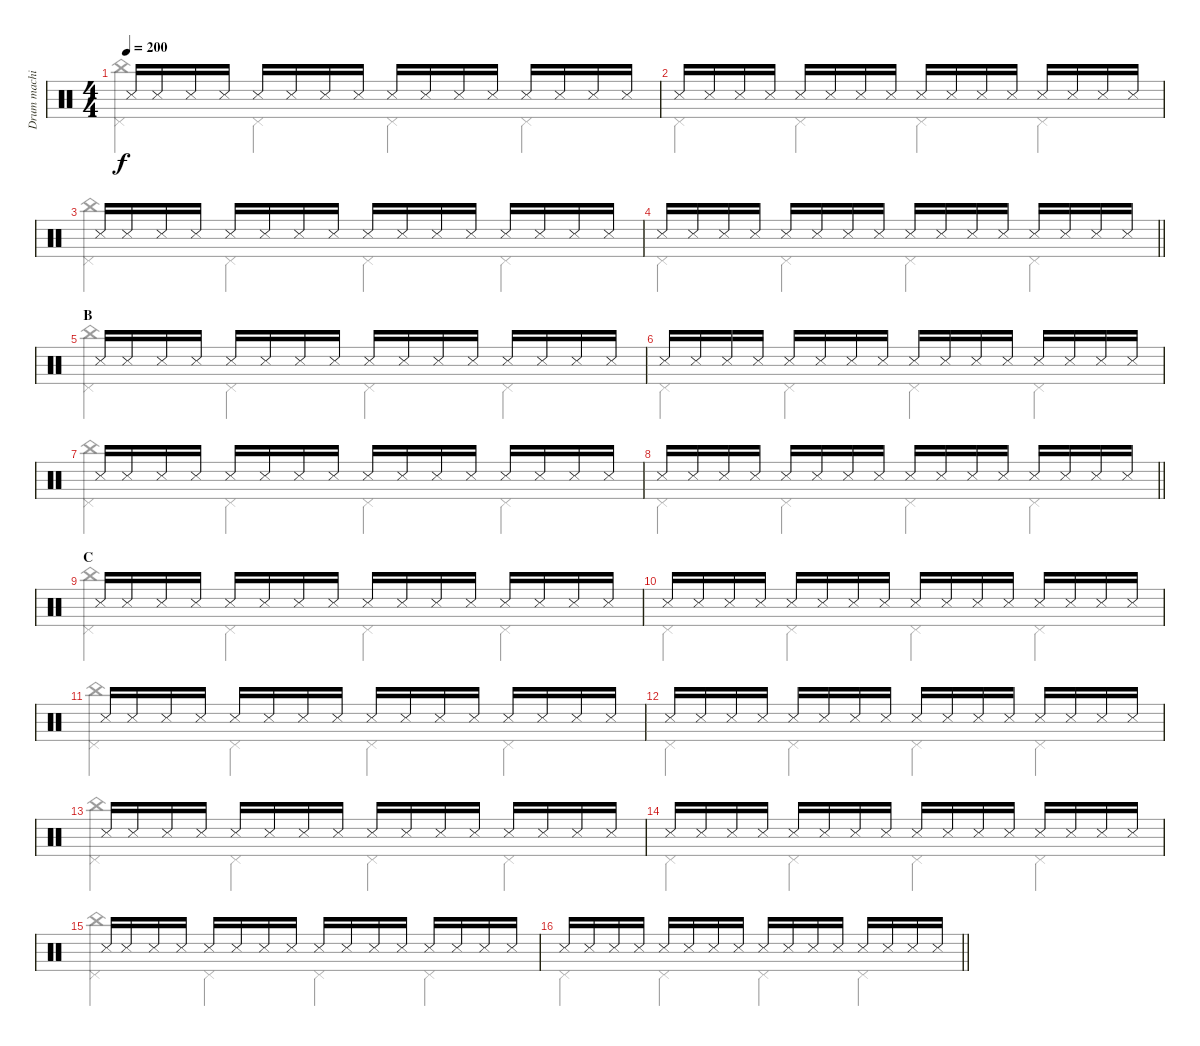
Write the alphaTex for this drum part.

\track ("Drum machine" "Drum machi") {instrument percussion}
\staff {score}
\articulation defaults
\voice
\ts (4 4)
\tempo 200
\clef neutral
\ks c "Snare (side stick) 3".16{dy f beam Up} "Snare (side stick) 3".16{beam Up} "Snare (side stick) 3".16{beam Up} "Snare (side stick) 3".16{beam Up} "Snare (side stick) 3".16{beam Up} "Snare (side stick) 3".16{beam Up} "Snare (side stick) 3".16{beam Up} "Snare (side stick) 3".16{beam Up} "Snare (side stick) 3".16{beam Up} "Snare (side stick) 3".16{beam Up} "Snare (side stick) 3".16{beam Up} "Snare (side stick) 3".16{beam Up} "Snare (side stick) 3".16{beam Up} "Snare (side stick) 3".16{beam Up} "Snare (side stick) 3".16{beam Up} "Snare (side stick) 3".16{beam Up}
|
"Snare (side stick) 3".16{beam Up} "Snare (side stick) 3".16{beam Up} "Snare (side stick) 3".16{beam Up} "Snare (side stick) 3".16{beam Up} "Snare (side stick) 3".16{beam Up} "Snare (side stick) 3".16{beam Up} "Snare (side stick) 3".16{beam Up} "Snare (side stick) 3".16{beam Up} "Snare (side stick) 3".16{beam Up} "Snare (side stick) 3".16{beam Up} "Snare (side stick) 3".16{beam Up} "Snare (side stick) 3".16{beam Up} "Snare (side stick) 3".16{beam Up} "Snare (side stick) 3".16{beam Up} "Snare (side stick) 3".16{beam Up} "Snare (side stick) 3".16{beam Up} |
"Snare (side stick) 3".16{beam Up} "Snare (side stick) 3".16{beam Up} "Snare (side stick) 3".16{beam Up} "Snare (side stick) 3".16{beam Up} "Snare (side stick) 3".16{beam Up} "Snare (side stick) 3".16{beam Up} "Snare (side stick) 3".16{beam Up} "Snare (side stick) 3".16{beam Up} "Snare (side stick) 3".16{beam Up} "Snare (side stick) 3".16{beam Up} "Snare (side stick) 3".16{beam Up} "Snare (side stick) 3".16{beam Up} "Snare (side stick) 3".16{beam Up} "Snare (side stick) 3".16{beam Up} "Snare (side stick) 3".16{beam Up} "Snare (side stick) 3".16{beam Up} |
\barLineRight lightlight "Snare (side stick) 3".16{beam Up} "Snare (side stick) 3".16{beam Up} "Snare (side stick) 3".16{beam Up} "Snare (side stick) 3".16{beam Up} "Snare (side stick) 3".16{beam Up} "Snare (side stick) 3".16{beam Up} "Snare (side stick) 3".16{beam Up} "Snare (side stick) 3".16{beam Up} "Snare (side stick) 3".16{beam Up} "Snare (side stick) 3".16{beam Up} "Snare (side stick) 3".16{beam Up} "Snare (side stick) 3".16{beam Up} "Snare (side stick) 3".16{beam Up} "Snare (side stick) 3".16{beam Up} "Snare (side stick) 3".16{beam Up} "Snare (side stick) 3".16{beam Up}
|
\section ("" "B")
"Snare (side stick) 3".16{beam Up} "Snare (side stick) 3".16{beam Up} "Snare (side stick) 3".16{beam Up} "Snare (side stick) 3".16{beam Up} "Snare (side stick) 3".16{beam Up} "Snare (side stick) 3".16{beam Up} "Snare (side stick) 3".16{beam Up} "Snare (side stick) 3".16{beam Up} "Snare (side stick) 3".16{beam Up} "Snare (side stick) 3".16{beam Up} "Snare (side stick) 3".16{beam Up} "Snare (side stick) 3".16{beam Up} "Snare (side stick) 3".16{beam Up} "Snare (side stick) 3".16{beam Up} "Snare (side stick) 3".16{beam Up} "Snare (side stick) 3".16{beam Up} |
"Snare (side stick) 3".16{beam Up} "Snare (side stick) 3".16{beam Up} "Snare (side stick) 3".16{beam Up} "Snare (side stick) 3".16{beam Up} "Snare (side stick) 3".16{beam Up} "Snare (side stick) 3".16{beam Up} "Snare (side stick) 3".16{beam Up} "Snare (side stick) 3".16{beam Up} "Snare (side stick) 3".16{beam Up} "Snare (side stick) 3".16{beam Up} "Snare (side stick) 3".16{beam Up} "Snare (side stick) 3".16{beam Up} "Snare (side stick) 3".16{beam Up} "Snare (side stick) 3".16{beam Up} "Snare (side stick) 3".16{beam Up} "Snare (side stick) 3".16{beam Up} |
"Snare (side stick) 3".16{beam Up} "Snare (side stick) 3".16{beam Up} "Snare (side stick) 3".16{beam Up} "Snare (side stick) 3".16{beam Up} "Snare (side stick) 3".16{beam Up} "Snare (side stick) 3".16{beam Up} "Snare (side stick) 3".16{beam Up} "Snare (side stick) 3".16{beam Up} "Snare (side stick) 3".16{beam Up} "Snare (side stick) 3".16{beam Up} "Snare (side stick) 3".16{beam Up} "Snare (side stick) 3".16{beam Up} "Snare (side stick) 3".16{beam Up} "Snare (side stick) 3".16{beam Up} "Snare (side stick) 3".16{beam Up} "Snare (side stick) 3".16{beam Up} |
\barLineRight lightlight "Snare (side stick) 3".16{beam Up} "Snare (side stick) 3".16{beam Up} "Snare (side stick) 3".16{beam Up} "Snare (side stick) 3".16{beam Up} "Snare (side stick) 3".16{beam Up} "Snare (side stick) 3".16{beam Up} "Snare (side stick) 3".16{beam Up} "Snare (side stick) 3".16{beam Up} "Snare (side stick) 3".16{beam Up} "Snare (side stick) 3".16{beam Up} "Snare (side stick) 3".16{beam Up} "Snare (side stick) 3".16{beam Up} "Snare (side stick) 3".16{beam Up} "Snare (side stick) 3".16{beam Up} "Snare (side stick) 3".16{beam Up} "Snare (side stick) 3".16{beam Up}
|
\section ("" "C")
"Snare (side stick) 3".16{beam Up} "Snare (side stick) 3".16{beam Up} "Snare (side stick) 3".16{beam Up} "Snare (side stick) 3".16{beam Up} "Snare (side stick) 3".16{beam Up} "Snare (side stick) 3".16{beam Up} "Snare (side stick) 3".16{beam Up} "Snare (side stick) 3".16{beam Up} "Snare (side stick) 3".16{beam Up} "Snare (side stick) 3".16{beam Up} "Snare (side stick) 3".16{beam Up} "Snare (side stick) 3".16{beam Up} "Snare (side stick) 3".16{beam Up} "Snare (side stick) 3".16{beam Up} "Snare (side stick) 3".16{beam Up} "Snare (side stick) 3".16{beam Up} |
"Snare (side stick) 3".16{beam Up} "Snare (side stick) 3".16{beam Up} "Snare (side stick) 3".16{beam Up} "Snare (side stick) 3".16{beam Up} "Snare (side stick) 3".16{beam Up} "Snare (side stick) 3".16{beam Up} "Snare (side stick) 3".16{beam Up} "Snare (side stick) 3".16{beam Up} "Snare (side stick) 3".16{beam Up} "Snare (side stick) 3".16{beam Up} "Snare (side stick) 3".16{beam Up} "Snare (side stick) 3".16{beam Up} "Snare (side stick) 3".16{beam Up} "Snare (side stick) 3".16{beam Up} "Snare (side stick) 3".16{beam Up} "Snare (side stick) 3".16{beam Up} |
"Snare (side stick) 3".16{beam Up} "Snare (side stick) 3".16{beam Up} "Snare (side stick) 3".16{beam Up} "Snare (side stick) 3".16{beam Up} "Snare (side stick) 3".16{beam Up} "Snare (side stick) 3".16{beam Up} "Snare (side stick) 3".16{beam Up} "Snare (side stick) 3".16{beam Up} "Snare (side stick) 3".16{beam Up} "Snare (side stick) 3".16{beam Up} "Snare (side stick) 3".16{beam Up} "Snare (side stick) 3".16{beam Up} "Snare (side stick) 3".16{beam Up} "Snare (side stick) 3".16{beam Up} "Snare (side stick) 3".16{beam Up} "Snare (side stick) 3".16{beam Up} |
"Snare (side stick) 3".16{beam Up} "Snare (side stick) 3".16{beam Up} "Snare (side stick) 3".16{beam Up} "Snare (side stick) 3".16{beam Up} "Snare (side stick) 3".16{beam Up} "Snare (side stick) 3".16{beam Up} "Snare (side stick) 3".16{beam Up} "Snare (side stick) 3".16{beam Up} "Snare (side stick) 3".16{beam Up} "Snare (side stick) 3".16{beam Up} "Snare (side stick) 3".16{beam Up} "Snare (side stick) 3".16{beam Up} "Snare (side stick) 3".16{beam Up} "Snare (side stick) 3".16{beam Up} "Snare (side stick) 3".16{beam Up} "Snare (side stick) 3".16{beam Up} |
"Snare (side stick) 3".16{beam Up} "Snare (side stick) 3".16{beam Up} "Snare (side stick) 3".16{beam Up} "Snare (side stick) 3".16{beam Up} "Snare (side stick) 3".16{beam Up} "Snare (side stick) 3".16{beam Up} "Snare (side stick) 3".16{beam Up} "Snare (side stick) 3".16{beam Up} "Snare (side stick) 3".16{beam Up} "Snare (side stick) 3".16{beam Up} "Snare (side stick) 3".16{beam Up} "Snare (side stick) 3".16{beam Up} "Snare (side stick) 3".16{beam Up} "Snare (side stick) 3".16{beam Up} "Snare (side stick) 3".16{beam Up} "Snare (side stick) 3".16{beam Up} |
"Snare (side stick) 3".16{beam Up} "Snare (side stick) 3".16{beam Up} "Snare (side stick) 3".16{beam Up} "Snare (side stick) 3".16{beam Up} "Snare (side stick) 3".16{beam Up} "Snare (side stick) 3".16{beam Up} "Snare (side stick) 3".16{beam Up} "Snare (side stick) 3".16{beam Up} "Snare (side stick) 3".16{beam Up} "Snare (side stick) 3".16{beam Up} "Snare (side stick) 3".16{beam Up} "Snare (side stick) 3".16{beam Up} "Snare (side stick) 3".16{beam Up} "Snare (side stick) 3".16{beam Up} "Snare (side stick) 3".16{beam Up} "Snare (side stick) 3".16{beam Up} |
"Snare (side stick) 3".16{beam Up} "Snare (side stick) 3".16{beam Up} "Snare (side stick) 3".16{beam Up} "Snare (side stick) 3".16{beam Up} "Snare (side stick) 3".16{beam Up} "Snare (side stick) 3".16{beam Up} "Snare (side stick) 3".16{beam Up} "Snare (side stick) 3".16{beam Up} "Snare (side stick) 3".16{beam Up} "Snare (side stick) 3".16{beam Up} "Snare (side stick) 3".16{beam Up} "Snare (side stick) 3".16{beam Up} "Snare (side stick) 3".16{beam Up} "Snare (side stick) 3".16{beam Up} "Snare (side stick) 3".16{beam Up} "Snare (side stick) 3".16{beam Up} |
\barLineRight lightlight "Snare (side stick) 3".16{beam Up} "Snare (side stick) 3".16{beam Up} "Snare (side stick) 3".16{beam Up} "Snare (side stick) 3".16{beam Up} "Snare (side stick) 3".16{beam Up} "Snare (side stick) 3".16{beam Up} "Snare (side stick) 3".16{beam Up} "Snare (side stick) 3".16{beam Up} "Snare (side stick) 3".16{beam Up} "Snare (side stick) 3".16{beam Up} "Snare (side stick) 3".16{beam Up} "Snare (side stick) 3".16{beam Up} "Snare (side stick) 3".16{beam Up} "Snare (side stick) 3".16{beam Up} "Snare (side stick) 3".16{beam Up} "Snare (side stick) 3".16{beam Up}
\voice
\clef neutral
\ottava regular
\simile none
\ks c
("Pedal Hi-Hat (hit)" "China (hit)").4{dy f beam Down} "Pedal Hi-Hat (hit)".4{beam Down} "Pedal Hi-Hat (hit)".4{beam Down} "Pedal Hi-Hat (hit)".4{beam Down} |
"Pedal Hi-Hat (hit)".4{beam Down} "Pedal Hi-Hat (hit)".4{beam Down} "Pedal Hi-Hat (hit)".4{beam Down} "Pedal Hi-Hat (hit)".4{beam Down} |
("Pedal Hi-Hat (hit)" "China (hit)").4{beam Down} "Pedal Hi-Hat (hit)".4{beam Down} "Pedal Hi-Hat (hit)".4{beam Down} "Pedal Hi-Hat (hit)".4{beam Down} |
\barLineRight lightlight "Pedal Hi-Hat (hit)".4{beam Down} "Pedal Hi-Hat (hit)".4{beam Down} "Pedal Hi-Hat (hit)".4{beam Down} "Pedal Hi-Hat (hit)".4{beam Down}
|
("Pedal Hi-Hat (hit)" "China (hit)").4{beam Down} "Pedal Hi-Hat (hit)".4{beam Down} "Pedal Hi-Hat (hit)".4{beam Down} "Pedal Hi-Hat (hit)".4{beam Down} |
"Pedal Hi-Hat (hit)".4{beam Down} "Pedal Hi-Hat (hit)".4{beam Down} "Pedal Hi-Hat (hit)".4{beam Down} "Pedal Hi-Hat (hit)".4{beam Down} |
("Pedal Hi-Hat (hit)" "China (hit)").4{beam Down} "Pedal Hi-Hat (hit)".4{beam Down} "Pedal Hi-Hat (hit)".4{beam Down} "Pedal Hi-Hat (hit)".4{beam Down} |
\barLineRight lightlight "Pedal Hi-Hat (hit)".4{beam Down} "Pedal Hi-Hat (hit)".4{beam Down} "Pedal Hi-Hat (hit)".4{beam Down} "Pedal Hi-Hat (hit)".4{beam Down}
|
("Pedal Hi-Hat (hit)" "China (hit)").4{beam Down} "Pedal Hi-Hat (hit)".4{beam Down} "Pedal Hi-Hat (hit)".4{beam Down} "Pedal Hi-Hat (hit)".4{beam Down} |
"Pedal Hi-Hat (hit)".4{beam Down} "Pedal Hi-Hat (hit)".4{beam Down} "Pedal Hi-Hat (hit)".4{beam Down} "Pedal Hi-Hat (hit)".4{beam Down} |
("Pedal Hi-Hat (hit)" "China (hit)").4{beam Down} "Pedal Hi-Hat (hit)".4{beam Down} "Pedal Hi-Hat (hit)".4{beam Down} "Pedal Hi-Hat (hit)".4{beam Down} |
"Pedal Hi-Hat (hit)".4{beam Down} "Pedal Hi-Hat (hit)".4{beam Down} "Pedal Hi-Hat (hit)".4{beam Down} "Pedal Hi-Hat (hit)".4{beam Down} |
("Pedal Hi-Hat (hit)" "China (hit)").4{beam Down} "Pedal Hi-Hat (hit)".4{beam Down} "Pedal Hi-Hat (hit)".4{beam Down} "Pedal Hi-Hat (hit)".4{beam Down} |
"Pedal Hi-Hat (hit)".4{beam Down} "Pedal Hi-Hat (hit)".4{beam Down} "Pedal Hi-Hat (hit)".4{beam Down} "Pedal Hi-Hat (hit)".4{beam Down} |
("Pedal Hi-Hat (hit)" "China (hit)").4{beam Down} "Pedal Hi-Hat (hit)".4{beam Down} "Pedal Hi-Hat (hit)".4{beam Down} "Pedal Hi-Hat (hit)".4{beam Down} |
\barLineRight lightlight "Pedal Hi-Hat (hit)".4{beam Down} "Pedal Hi-Hat (hit)".4{beam Down} "Pedal Hi-Hat (hit)".4{beam Down} "Pedal Hi-Hat (hit)".4{beam Down}
